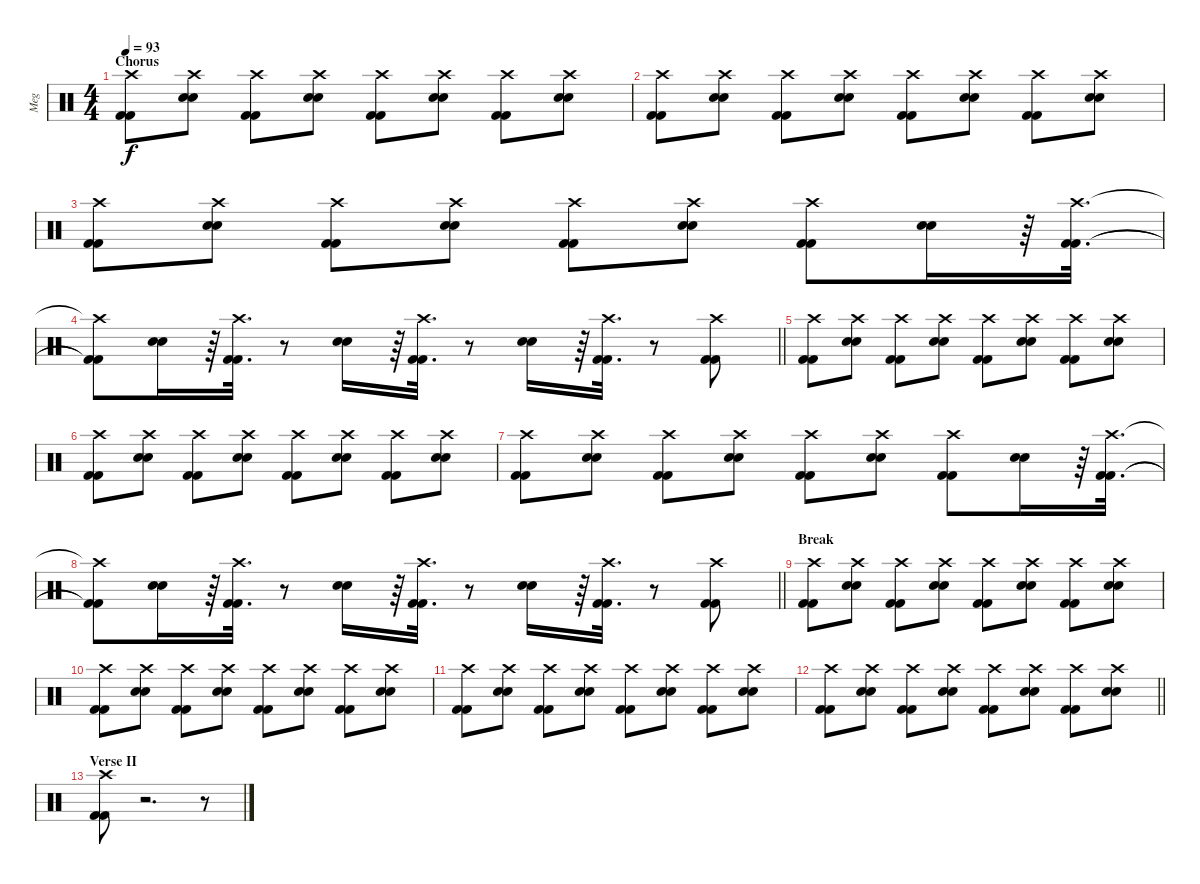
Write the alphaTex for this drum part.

\track ("Meg" "Meg") {instrument percussion}
\staff {score}
\articulation defaults
\ts (4 4)
\section ("" "Chorus")
\tempo 93
\clef neutral
\ks c
("Crash high (hit)" "Kick (hit) 2" "Kick (hit) 2").8{dy f} ("Crash high (hit)" "Snare (hit) 2" "Snare (hit) 2").8 ("Crash high (hit)" "Kick (hit) 2" "Kick (hit) 2").8 ("Crash high (hit)" "Snare (hit) 2" "Snare (hit) 2").8 ("Crash high (hit)" "Kick (hit) 2" "Kick (hit) 2").8 ("Crash high (hit)" "Snare (hit) 2" "Snare (hit) 2").8 ("Crash high (hit)" "Kick (hit) 2" "Kick (hit) 2").8 ("Crash high (hit)" "Snare (hit) 2" "Snare (hit) 2").8 |
("Crash high (hit)" "Kick (hit) 2" "Kick (hit) 2").8 ("Crash high (hit)" "Snare (hit) 2" "Snare (hit) 2").8 ("Crash high (hit)" "Kick (hit) 2" "Kick (hit) 2").8 ("Crash high (hit)" "Snare (hit) 2" "Snare (hit) 2").8 ("Crash high (hit)" "Kick (hit) 2" "Kick (hit) 2").8 ("Crash high (hit)" "Snare (hit) 2" "Snare (hit) 2").8 ("Crash high (hit)" "Kick (hit) 2" "Kick (hit) 2").8 ("Crash high (hit)" "Snare (hit) 2" "Snare (hit) 2").8 |
("Crash high (hit)" "Kick (hit) 2" "Kick (hit) 2").8 ("Crash high (hit)" "Snare (hit) 2" "Snare (hit) 2").8 ("Crash high (hit)" "Kick (hit) 2" "Kick (hit) 2").8 ("Crash high (hit)" "Snare (hit) 2" "Snare (hit) 2").8 ("Crash high (hit)" "Kick (hit) 2" "Kick (hit) 2").8 ("Crash high (hit)" "Snare (hit) 2" "Snare (hit) 2").8 ("Crash high (hit)" "Kick (hit) 2" "Kick (hit) 2").8 ("Snare (hit) 2" "Snare (hit) 2").16 r.64 ("Crash high (hit)" "Kick (hit) 2" "Kick (hit) 2").32{d} |
\barLineRight lightlight
("Crash high (hit)"{t} "Kick (hit) 2"{t} "Kick (hit) 2"{t}).8 ("Snare (hit) 2" "Snare (hit) 2").16 r.64 ("Crash high (hit)" "Kick (hit) 2" "Kick (hit) 2").32{d} r.8 ("Snare (hit) 2" "Snare (hit) 2").16 r.64 ("Crash high (hit)" "Kick (hit) 2" "Kick (hit) 2").32{d} r.8 ("Snare (hit) 2" "Snare (hit) 2").16 r.64 ("Crash high (hit)" "Kick (hit) 2" "Kick (hit) 2").32{d} r.8 ("Crash high (hit)" "Kick (hit) 2" "Kick (hit) 2").8 |
("Crash high (hit)" "Kick (hit) 2" "Kick (hit) 2").8 ("Crash high (hit)" "Snare (hit) 2" "Snare (hit) 2").8 ("Crash high (hit)" "Kick (hit) 2" "Kick (hit) 2").8 ("Crash high (hit)" "Snare (hit) 2" "Snare (hit) 2").8 ("Crash high (hit)" "Kick (hit) 2" "Kick (hit) 2").8 ("Crash high (hit)" "Snare (hit) 2" "Snare (hit) 2").8 ("Crash high (hit)" "Kick (hit) 2" "Kick (hit) 2").8 ("Crash high (hit)" "Snare (hit) 2" "Snare (hit) 2").8 |
("Crash high (hit)" "Kick (hit) 2" "Kick (hit) 2").8 ("Crash high (hit)" "Snare (hit) 2" "Snare (hit) 2").8 ("Crash high (hit)" "Kick (hit) 2" "Kick (hit) 2").8 ("Crash high (hit)" "Snare (hit) 2" "Snare (hit) 2").8 ("Crash high (hit)" "Kick (hit) 2" "Kick (hit) 2").8 ("Crash high (hit)" "Snare (hit) 2" "Snare (hit) 2").8 ("Crash high (hit)" "Kick (hit) 2" "Kick (hit) 2").8 ("Crash high (hit)" "Snare (hit) 2" "Snare (hit) 2").8 |
("Crash high (hit)" "Kick (hit) 2" "Kick (hit) 2").8 ("Crash high (hit)" "Snare (hit) 2" "Snare (hit) 2").8 ("Crash high (hit)" "Kick (hit) 2" "Kick (hit) 2").8 ("Crash high (hit)" "Snare (hit) 2" "Snare (hit) 2").8 ("Crash high (hit)" "Kick (hit) 2" "Kick (hit) 2").8 ("Crash high (hit)" "Snare (hit) 2" "Snare (hit) 2").8 ("Crash high (hit)" "Kick (hit) 2" "Kick (hit) 2").8 ("Snare (hit) 2" "Snare (hit) 2").16 r.64 ("Crash high (hit)" "Kick (hit) 2" "Kick (hit) 2").32{d} |
\barLineRight lightlight
("Crash high (hit)"{t} "Kick (hit) 2"{t} "Kick (hit) 2"{t}).8 ("Snare (hit) 2" "Snare (hit) 2").16 r.64 ("Crash high (hit)" "Kick (hit) 2" "Kick (hit) 2").32{d} r.8 ("Snare (hit) 2" "Snare (hit) 2").16 r.64 ("Crash high (hit)" "Kick (hit) 2" "Kick (hit) 2").32{d} r.8 ("Snare (hit) 2" "Snare (hit) 2").16 r.64 ("Crash high (hit)" "Kick (hit) 2" "Kick (hit) 2").32{d} r.8 ("Crash high (hit)" "Kick (hit) 2" "Kick (hit) 2").8 |
\section ("" "Break")
("Crash high (hit)" "Kick (hit) 2" "Kick (hit) 2").8 ("Crash high (hit)" "Snare (hit) 2" "Snare (hit) 2").8 ("Crash high (hit)" "Kick (hit) 2" "Kick (hit) 2").8 ("Crash high (hit)" "Snare (hit) 2" "Snare (hit) 2").8 ("Crash high (hit)" "Kick (hit) 2" "Kick (hit) 2").8 ("Crash high (hit)" "Snare (hit) 2" "Snare (hit) 2").8 ("Crash high (hit)" "Kick (hit) 2" "Kick (hit) 2").8 ("Crash high (hit)" "Snare (hit) 2" "Snare (hit) 2").8 |
("Crash high (hit)" "Kick (hit) 2" "Kick (hit) 2").8 ("Crash high (hit)" "Snare (hit) 2" "Snare (hit) 2").8 ("Crash high (hit)" "Kick (hit) 2" "Kick (hit) 2").8 ("Crash high (hit)" "Snare (hit) 2" "Snare (hit) 2").8 ("Crash high (hit)" "Kick (hit) 2" "Kick (hit) 2").8 ("Crash high (hit)" "Snare (hit) 2" "Snare (hit) 2").8 ("Crash high (hit)" "Kick (hit) 2" "Kick (hit) 2").8 ("Crash high (hit)" "Snare (hit) 2" "Snare (hit) 2").8 |
("Crash high (hit)" "Kick (hit) 2" "Kick (hit) 2").8 ("Crash high (hit)" "Snare (hit) 2" "Snare (hit) 2").8 ("Crash high (hit)" "Kick (hit) 2" "Kick (hit) 2").8 ("Crash high (hit)" "Snare (hit) 2" "Snare (hit) 2").8 ("Crash high (hit)" "Kick (hit) 2" "Kick (hit) 2").8 ("Crash high (hit)" "Snare (hit) 2" "Snare (hit) 2").8 ("Crash high (hit)" "Kick (hit) 2" "Kick (hit) 2").8 ("Crash high (hit)" "Snare (hit) 2" "Snare (hit) 2").8 |
\barLineRight lightlight
("Crash high (hit)" "Kick (hit) 2" "Kick (hit) 2").8 ("Crash high (hit)" "Snare (hit) 2" "Snare (hit) 2").8 ("Crash high (hit)" "Kick (hit) 2" "Kick (hit) 2").8 ("Crash high (hit)" "Snare (hit) 2" "Snare (hit) 2").8 ("Crash high (hit)" "Kick (hit) 2" "Kick (hit) 2").8 ("Crash high (hit)" "Snare (hit) 2" "Snare (hit) 2").8 ("Crash high (hit)" "Kick (hit) 2" "Kick (hit) 2").8 ("Crash high (hit)" "Snare (hit) 2" "Snare (hit) 2").8 |
\section ("" "Verse II")
("Crash high (hit)" "Kick (hit) 2" "Kick (hit) 2").8 r.2{d} r.8
